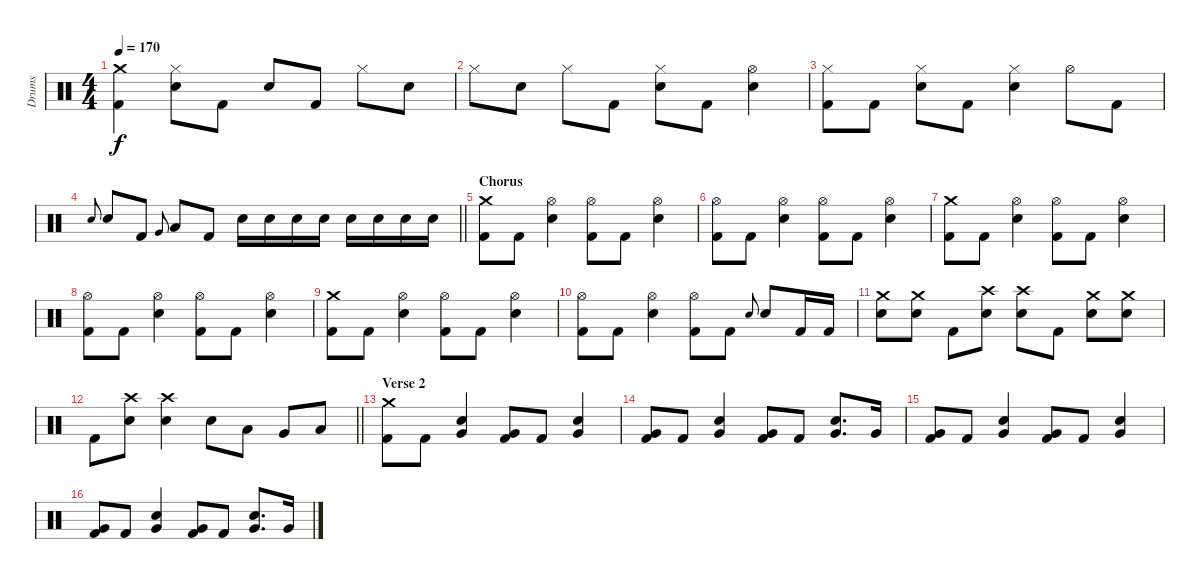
\track ("Drums" "Drums") {instrument percussion}
\staff {score}
\articulation defaults
\ts (4 4)
\tempo 170
\clef neutral
\ks c
("Crash medium (hit)" "Kick (hit) 2").4{dy f} ("Hi-Hat (closed)" "Snare (hit) 2").8 "Kick (hit) 2".8 "Snare (hit) 2".8 "Kick (hit) 2".8 "Hi-Hat (closed)".8 "Snare (hit) 2".8 |
"Hi-Hat (closed)".8 "Snare (hit) 2".8 "Hi-Hat (closed)".8 "Kick (hit) 2".8 ("Hi-Hat (closed)" "Snare (hit) 2").8 "Kick (hit) 2".8 ("Hi-Hat (open)" "Snare (hit) 2").4 |
("Hi-Hat (closed)" "Kick (hit) 2").8 "Kick (hit) 2".8 ("Hi-Hat (closed)" "Snare (hit) 2").8 "Kick (hit) 2".8 ("Hi-Hat (closed)" "Snare (hit) 2").4 "Hi-Hat (open)".8 "Kick (hit) 2".8 |
\barLineRight lightlight "Snare (hit) 2".8{gr onbeat} "Snare (hit) 2".8 "Kick (hit) 2".8 "Very Low Tom (hit)".8{gr onbeat} "Low Tom (hit)".8 "Kick (hit) 2".8 "Snare (hit) 2".16 "Snare (hit) 2".16 "Snare (hit) 2".16 "Snare (hit) 2".16 "Snare (hit) 2".16 "Snare (hit) 2".16 "Snare (hit) 2".16 "Snare (hit) 2".16
|
\section ("" "Chorus")
("Crash medium (hit)" "Kick (hit) 2").8 "Kick (hit) 2".8 ("Hi-Hat (open)" "Snare (hit) 2").4 ("Hi-Hat (open)" "Kick (hit) 2").8 "Kick (hit) 2".8 ("Hi-Hat (open)" "Snare (hit) 2").4 |
("Hi-Hat (open)" "Kick (hit) 2").8 "Kick (hit) 2".8 ("Hi-Hat (open)" "Snare (hit) 2").4 ("Hi-Hat (open)" "Kick (hit) 2").8 "Kick (hit) 2".8 ("Hi-Hat (open)" "Snare (hit) 2").4 |
("Crash medium (hit)" "Kick (hit) 2").8 "Kick (hit) 2".8 ("Hi-Hat (open)" "Snare (hit) 2").4 ("Hi-Hat (open)" "Kick (hit) 2").8 "Kick (hit) 2".8 ("Hi-Hat (open)" "Snare (hit) 2").4 |
("Hi-Hat (open)" "Kick (hit) 2").8 "Kick (hit) 2".8 ("Hi-Hat (open)" "Snare (hit) 2").4 ("Hi-Hat (open)" "Kick (hit) 2").8 "Kick (hit) 2".8 ("Hi-Hat (open)" "Snare (hit) 2").4 |
("Crash medium (hit)" "Kick (hit) 2").8 "Kick (hit) 2".8 ("Hi-Hat (open)" "Snare (hit) 2").4 ("Hi-Hat (open)" "Kick (hit) 2").8 "Kick (hit) 2".8 ("Hi-Hat (open)" "Snare (hit) 2").4 |
("Hi-Hat (open)" "Kick (hit) 2").8 "Kick (hit) 2".8 ("Hi-Hat (open)" "Snare (hit) 2").4 ("Hi-Hat (open)" "Kick (hit) 2").8 "Kick (hit) 2".8 "Snare (hit) 2".8{gr onbeat} "Snare (hit) 2".8 "Kick (hit) 2".16 "Kick (hit) 2".16 |
("Crash medium (hit)" "Snare (hit) 2").8 ("Crash medium (hit)" "Snare (hit) 2").8 "Kick (hit) 2".8 ("Crash high (hit)" "Snare (hit) 2").8 ("Crash high (hit)" "Snare (hit) 2").8 "Kick (hit) 2".8 ("Crash medium (hit)" "Snare (hit) 2").8 ("Crash medium (hit)" "Snare (hit) 2").8 |
\barLineRight lightlight "Kick (hit) 2".8
("Crash high (hit)" "Snare (hit) 2").8 ("Crash high (hit)" "Snare (hit) 2").4 "Snare (hit) 2".8 "Low Tom (hit)".8 "Very Low Tom (hit)".8 "Low Floor Tom (hit)".8 |
\section ("" "Verse 2")
("Crash medium (hit)" "Kick (hit) 2").8 "Kick (hit) 2".8 ("Snare (hit) 2" "Very Low Tom (hit)").4 ("Very Low Tom (hit)" "Kick (hit) 2").8 "Kick (hit) 2".8 ("Snare (hit) 2" "Very Low Tom (hit)").4 |
("Very Low Tom (hit)" "Kick (hit) 2").8 "Kick (hit) 2".8 ("Snare (hit) 2" "Very Low Tom (hit)").4 ("Very Low Tom (hit)" "Kick (hit) 2").8 "Kick (hit) 2".8 ("Snare (hit) 2" "Very Low Tom (hit)").8{d} "Very Low Tom (hit)".16 |
("Very Low Tom (hit)" "Kick (hit) 2").8 "Kick (hit) 2".8 ("Snare (hit) 2" "Very Low Tom (hit)").4 ("Very Low Tom (hit)" "Kick (hit) 2").8 "Kick (hit) 2".8 ("Snare (hit) 2" "Very Low Tom (hit)").4 |
("Very Low Tom (hit)" "Kick (hit) 2").8 "Kick (hit) 2".8 ("Snare (hit) 2" "Very Low Tom (hit)").4 ("Very Low Tom (hit)" "Kick (hit) 2").8 "Kick (hit) 2".8 ("Snare (hit) 2" "Very Low Tom (hit)").8{d} "Very Low Tom (hit)".16
